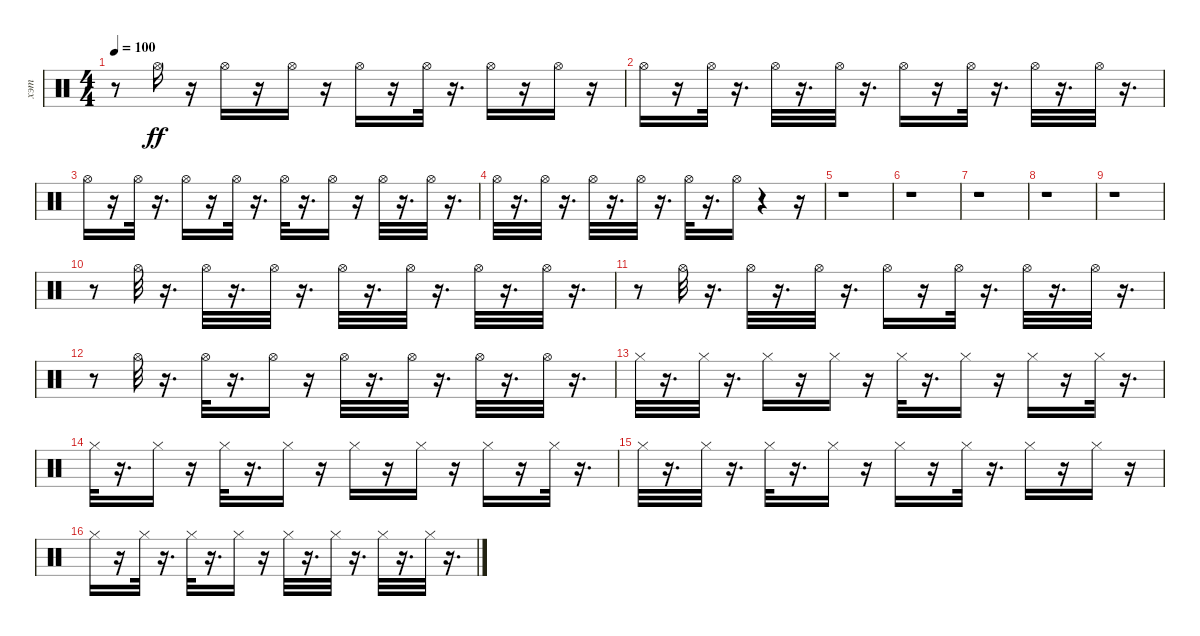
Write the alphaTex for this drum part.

\track ("хэт" "хэт") {instrument percussion}
\staff {score}
\articulation defaults
\ts (4 4)
\tempo 100
\clef neutral
\ks c
r.8{dy ff} "Hi-Hat (open)".16 r.16 "Hi-Hat (open)".16 r.16 "Hi-Hat (open)".16 r.16 "Hi-Hat (open)".16 r.16 "Hi-Hat (open)".32 r.16{d} "Hi-Hat (open)".16 r.16 "Hi-Hat (open)".16 r.16 |
"Hi-Hat (open)".16 r.16 "Hi-Hat (open)".32 r.16{d} "Hi-Hat (open)".32 r.16{d} "Hi-Hat (open)".32 r.16{d} "Hi-Hat (open)".16 r.16 "Hi-Hat (open)".32 r.16{d} "Hi-Hat (open)".32 r.16{d} "Hi-Hat (open)".32 r.16{d} |
"Hi-Hat (open)".16 r.16 "Hi-Hat (open)".32 r.16{d} "Hi-Hat (open)".16 r.16 "Hi-Hat (open)".32 r.16{d} "Hi-Hat (open)".32 r.16{d} "Hi-Hat (open)".16 r.16 "Hi-Hat (open)".32 r.16{d} "Hi-Hat (open)".32 r.16{d} |
"Hi-Hat (open)".32 r.16{d} "Hi-Hat (open)".32 r.16{d} "Hi-Hat (open)".32 r.16{d} "Hi-Hat (open)".32 r.16{d} "Hi-Hat (open)".32 r.16{d} "Hi-Hat (open)".16 r.4 r.16 |
r.1 |
r.1 |
r.1 |
r.1 |
r.1 |
r.8 "Hi-Hat (open)".32 r.16{d} "Hi-Hat (open)".32 r.16{d} "Hi-Hat (open)".32 r.16{d} "Hi-Hat (open)".32 r.16{d} "Hi-Hat (open)".32 r.16{d} "Hi-Hat (open)".32 r.16{d} "Hi-Hat (open)".32 r.16{d} |
r.8 "Hi-Hat (open)".32 r.16{d} "Hi-Hat (open)".32 r.16{d} "Hi-Hat (open)".32 r.16{d} "Hi-Hat (open)".16 r.16 "Hi-Hat (open)".32 r.16{d} "Hi-Hat (open)".32 r.16{d} "Hi-Hat (open)".32 r.16{d} |
r.8 "Hi-Hat (open)".32 r.16{d} "Hi-Hat (open)".32 r.16{d} "Hi-Hat (open)".16 r.16 "Hi-Hat (open)".32 r.16{d} "Hi-Hat (open)".32 r.16{d} "Hi-Hat (open)".32 r.16{d} "Hi-Hat (open)".32 r.16{d} |
"Hi-Hat (closed)".32 r.16{d} "Hi-Hat (closed)".32 r.16{d} "Hi-Hat (closed)".16 r.16 "Hi-Hat (closed)".16 r.16 "Hi-Hat (closed)".32 r.16{d} "Hi-Hat (closed)".16 r.16 "Hi-Hat (closed)".16 r.16 "Hi-Hat (closed)".32 r.16{d} |
"Hi-Hat (closed)".32 r.16{d} "Hi-Hat (closed)".16 r.16 "Hi-Hat (closed)".32 r.16{d} "Hi-Hat (closed)".16 r.16 "Hi-Hat (closed)".16 r.16 "Hi-Hat (closed)".16 r.16 "Hi-Hat (closed)".16 r.16 "Hi-Hat (closed)".32 r.16{d} |
"Hi-Hat (closed)".32 r.16{d} "Hi-Hat (closed)".32 r.16{d} "Hi-Hat (closed)".32 r.16{d} "Hi-Hat (closed)".16 r.16 "Hi-Hat (closed)".16 r.16 "Hi-Hat (closed)".32 r.16{d} "Hi-Hat (closed)".16 r.16 "Hi-Hat (closed)".16 r.16 |
"Hi-Hat (closed)".16 r.16 "Hi-Hat (closed)".32 r.16{d} "Hi-Hat (closed)".32 r.16{d} "Hi-Hat (closed)".16 r.16 "Hi-Hat (closed)".32 r.16{d} "Hi-Hat (closed)".32 r.16{d} "Hi-Hat (closed)".32 r.16{d} "Hi-Hat (closed)".32 r.16{d}
